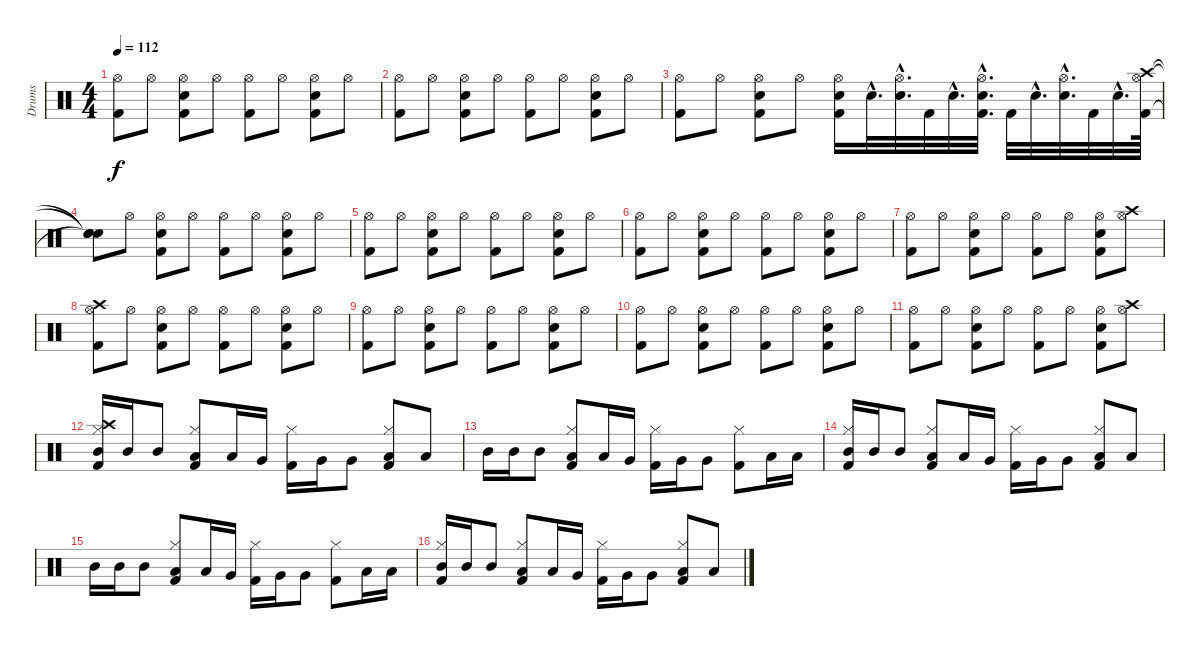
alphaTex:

\track ("Drums" "Drums") {instrument percussion}
\staff {score}
\articulation defaults
\ts (4 4)
\tempo 112
\clef neutral
\ks c
("Hi-Hat (open)" "Kick (hit) 2").8{dy f} "Hi-Hat (open)".8 ("Hi-Hat (open)" "Kick (hit) 2" "Snare (hit) 2").8 "Hi-Hat (open)".8 ("Kick (hit) 2" "Hi-Hat (open)").8 "Hi-Hat (open)".8 ("Kick (hit) 2" "Snare (hit) 2" "Hi-Hat (open)").8 "Hi-Hat (open)".8 |
("Hi-Hat (open)" "Kick (hit) 2").8 "Hi-Hat (open)".8 ("Hi-Hat (open)" "Kick (hit) 2" "Snare (hit) 2").8 "Hi-Hat (open)".8 ("Kick (hit) 2" "Hi-Hat (open)").8 "Hi-Hat (open)".8 ("Kick (hit) 2" "Snare (hit) 2" "Hi-Hat (open)").8 "Hi-Hat (open)".8 |
("Hi-Hat (open)" "Kick (hit) 2").8 "Hi-Hat (open)".8 ("Kick (hit) 2" "Snare (hit) 2" "Hi-Hat (open)").8 "Hi-Hat (open)".8 ("Hi-Hat (open)" "Kick (hit) 2" "Snare (hit) 2").16 "Snare (hit) 2"{hac}.32{d} ("Hi-Hat (open)"{hac} "Snare (hit) 2"{hac}).32{d} "Kick (hit) 2".32 "Snare (hit) 2"{hac}.32{d} ("Hi-Hat (open)"{hac} "Snare (hit) 2"{hac} "Kick (hit) 2"{hac}).32{d} "Kick (hit) 2".32 "Snare (hit) 2"{hac}.32{d} ("Snare (hit) 2"{hac} "Hi-Hat (open)"{hac}).32{d} "Kick (hit) 2".32 "Snare (hit) 2"{hac}.32{d} ("Hi-Hat (open)" "Kick (hit) 2" "Crash high (hit)").64 |
("Snare (hit)"{t} "Snare (hit)"{t} "Snare (hit)"{t}).8 "Hi-Hat (open)".8 ("Snare (hit) 2" "Hi-Hat (open)" "Kick (hit) 2").8 "Hi-Hat (open)".8 ("Hi-Hat (open)" "Kick (hit) 2").8 "Hi-Hat (open)".8 ("Kick (hit) 2" "Hi-Hat (open)" "Snare (hit) 2").8 "Hi-Hat (open)".8 |
("Hi-Hat (open)" "Kick (hit) 2").8 "Hi-Hat (open)".8 ("Kick (hit) 2" "Snare (hit) 2" "Hi-Hat (open)").8 "Hi-Hat (open)".8 ("Hi-Hat (open)" "Kick (hit) 2").8 "Hi-Hat (open)".8 ("Snare (hit) 2" "Kick (hit) 2" "Hi-Hat (open)").8 "Hi-Hat (open)".8 |
("Hi-Hat (open)" "Kick (hit) 2").8 "Hi-Hat (open)".8 ("Kick (hit) 2" "Snare (hit) 2" "Hi-Hat (open)").8 "Hi-Hat (open)".8 ("Hi-Hat (open)" "Kick (hit) 2").8 "Hi-Hat (open)".8 ("Snare (hit) 2" "Kick (hit) 2" "Hi-Hat (open)").8 "Hi-Hat (open)".8 |
("Hi-Hat (open)" "Kick (hit) 2").8 "Hi-Hat (open)".8 ("Kick (hit) 2" "Snare (hit) 2" "Hi-Hat (open)").8 "Hi-Hat (open)".8 ("Hi-Hat (open)" "Kick (hit) 2").8 "Hi-Hat (open)".8 ("Snare (hit) 2" "Kick (hit) 2" "Hi-Hat (open)").8 ("Hi-Hat (open)" "Crash high (hit)").8 |
("Hi-Hat (open)" "Kick (hit) 2" "Crash high (hit)").8 "Hi-Hat (open)".8 ("Kick (hit) 2" "Snare (hit) 2" "Hi-Hat (open)").8 "Hi-Hat (open)".8 ("Hi-Hat (open)" "Kick (hit) 2").8 "Hi-Hat (open)".8 ("Snare (hit) 2" "Kick (hit) 2" "Hi-Hat (open)").8 "Hi-Hat (open)".8 |
("Hi-Hat (open)" "Kick (hit) 2").8 "Hi-Hat (open)".8 ("Kick (hit) 2" "Snare (hit) 2" "Hi-Hat (open)").8 "Hi-Hat (open)".8 ("Hi-Hat (open)" "Kick (hit) 2").8 "Hi-Hat (open)".8 ("Snare (hit) 2" "Kick (hit) 2" "Hi-Hat (open)").8 "Hi-Hat (open)".8 |
("Hi-Hat (open)" "Kick (hit) 2").8 "Hi-Hat (open)".8 ("Kick (hit) 2" "Snare (hit) 2" "Hi-Hat (open)").8 "Hi-Hat (open)".8 ("Hi-Hat (open)" "Kick (hit) 2").8 "Hi-Hat (open)".8 ("Snare (hit) 2" "Kick (hit) 2" "Hi-Hat (open)").8 "Hi-Hat (open)".8 |
("Hi-Hat (open)" "Kick (hit) 2").8 "Hi-Hat (open)".8 ("Kick (hit) 2" "Snare (hit) 2" "Hi-Hat (open)").8 "Hi-Hat (open)".8 ("Hi-Hat (open)" "Kick (hit) 2").8 "Hi-Hat (open)".8 ("Snare (hit) 2" "Kick (hit) 2" "Hi-Hat (open)").8 ("Hi-Hat (open)" "Crash high (hit)").8 |
("Crash high (hit)" "Hi-Hat (closed)" "Mid Tom (hit)" "Kick (hit) 2").16 "Mid Tom (hit)".16 "Mid Tom (hit)".8 ("Kick (hit) 2" "Hi-Hat (closed)" "Low Tom (hit)").8 "Low Tom (hit)".16 "Very Low Tom (hit)".16 ("Kick (hit) 2" "Hi-Hat (closed)").16 "Very Low Tom (hit)".16 "Very Low Tom (hit)".8 ("Hi-Hat (closed)" "Kick (hit) 2" "Low Floor Tom (hit)").8 "Low Floor Tom (hit)".8 |
"Mid Tom (hit)".16 "Mid Tom (hit)".16 "Mid Tom (hit)".8 ("Hi-Hat (closed)" "Kick (hit) 2" "Low Tom (hit)").8 "Low Tom (hit)".16 "Very Low Tom (hit)".16 ("Kick (hit) 2" "Hi-Hat (closed)").16 "Very Low Tom (hit)".16 "Very Low Tom (hit)".8 ("Kick (hit) 2" "Hi-Hat (closed)").8 "Low Floor Tom (hit)".16 "Low Floor Tom (hit)".16 |
("Hi-Hat (closed)" "Kick (hit) 2" "Mid Tom (hit)").16 "Mid Tom (hit)".16 "Mid Tom (hit)".8 ("Hi-Hat (closed)" "Low Tom (hit)" "Kick (hit) 2").8 "Low Tom (hit)".16 "Very Low Tom (hit)".16 ("Kick (hit) 2" "Hi-Hat (closed)").16 "Very Low Tom (hit)".16 "Very Low Tom (hit)".8 ("Low Floor Tom (hit)" "Kick (hit) 2" "Hi-Hat (closed)").8 "Low Floor Tom (hit)".8 |
"Mid Tom (hit)".16 "Mid Tom (hit)".16 "Mid Tom (hit)".8 ("Hi-Hat (closed)" "Kick (hit) 2" "Low Tom (hit)").8 "Low Tom (hit)".16 "Very Low Tom (hit)".16 ("Kick (hit) 2" "Hi-Hat (closed)").16 "Very Low Tom (hit)".16 "Very Low Tom (hit)".8 ("Kick (hit) 2" "Hi-Hat (closed)").8 "Low Floor Tom (hit)".16 "Low Floor Tom (hit)".16 |
("Hi-Hat (closed)" "Kick (hit) 2" "Mid Tom (hit)").16 "Mid Tom (hit)".16 "Mid Tom (hit)".8 ("Hi-Hat (closed)" "Low Tom (hit)" "Kick (hit) 2").8 "Low Tom (hit)".16 "Very Low Tom (hit)".16 ("Kick (hit) 2" "Hi-Hat (closed)").16 "Very Low Tom (hit)".16 "Very Low Tom (hit)".8 ("Low Floor Tom (hit)" "Kick (hit) 2" "Hi-Hat (closed)").8 "Low Floor Tom (hit)".8
